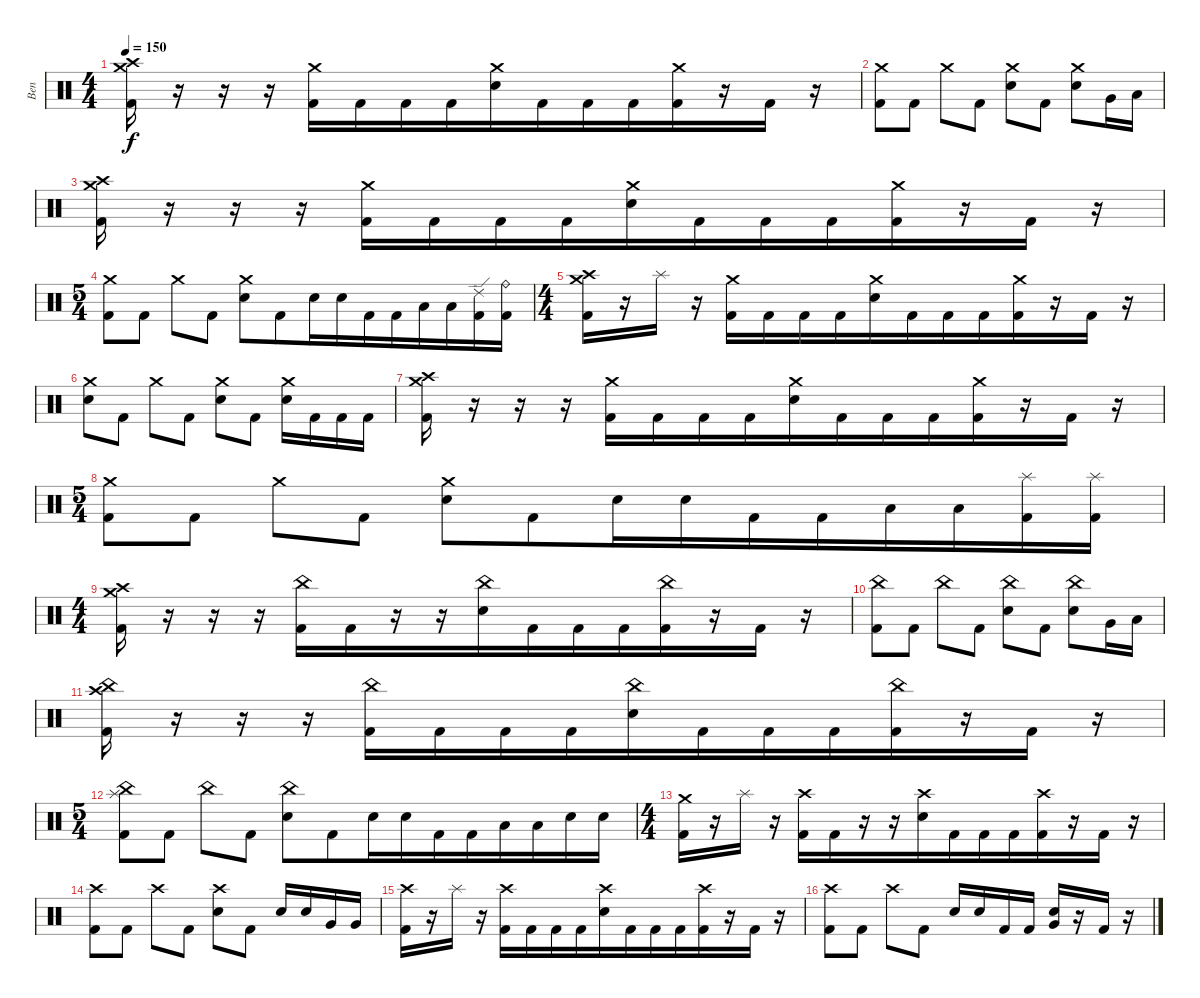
\track ("Ben" "Ben") {instrument percussion}
\staff {score}
\articulation defaults
\ts (4 4)
\tempo 150
\clef neutral
\ks c
("Kick (hit) 2" "Crash high (hit)" "Crash medium (hit)").16{dy f} r.16{beam merge} r.16 r.16 ("Kick (hit) 2" "Crash medium (hit)").16 "Kick (hit) 2".16{beam merge} "Kick (hit) 2".16 "Kick (hit) 2".16{beam merge} ("Electric Snare (hit)" "Crash medium (hit)").16{beam merge} "Kick (hit) 2".16 "Kick (hit) 2".16{beam merge} "Kick (hit) 2".16{beam merge} ("Kick (hit) 2" "Crash medium (hit)").16 r.16{beam merge} "Kick (hit) 2".16 r.16 |
("Kick (hit) 2" "Crash medium (hit)").8 "Kick (hit) 2".8 "Crash medium (hit)".8 "Kick (hit) 2".8 ("Electric Snare (hit)" "Crash medium (hit)").8 "Kick (hit) 2".8 ("Electric Snare (hit)" "Crash medium (hit)").8{beam merge} "Very Low Tom (hit)".16 "Low Floor Tom (hit)".16 |
("Kick (hit) 2" "Crash high (hit)" "Crash medium (hit)").16 r.16{beam merge} r.16 r.16 ("Kick (hit) 2" "Crash medium (hit)").16 "Kick (hit) 2".16{beam merge} "Kick (hit) 2".16 "Kick (hit) 2".16{beam merge} ("Electric Snare (hit)" "Crash medium (hit)").16{beam merge} "Kick (hit) 2".16 "Kick (hit) 2".16{beam merge} "Kick (hit) 2".16{beam merge} ("Kick (hit) 2" "Crash medium (hit)").16 r.16{beam merge} "Kick (hit) 2".16 r.16 |
\ts (5 4)
("Kick (hit) 2" "Crash medium (hit)").8 "Kick (hit) 2".8 "Crash medium (hit)".8 "Kick (hit) 2".8 ("Electric Snare (hit)" "Crash medium (hit)").8 "Kick (hit) 2".8{beam merge} "Electric Snare (hit)".16{beam merge} "Electric Snare (hit)".16 "Kick (hit) 2".16 "Kick (hit) 2".16{beam merge} "Low Floor Tom (hit)".16{beam merge} "Low Floor Tom (hit)".16{beam merge} ("Kick (hit) 2" "Ride (edge) 2").16 ("Kick (hit) 2" "Ride (bell)").16 |
\ts (4 4)
("Kick (hit) 2" "Crash high (hit)" "Crash medium (hit)").16 r.16{beam merge} "Splash (hit)".16 r.16 ("Kick (hit) 2" "Crash medium (hit)").16 "Kick (hit) 2".16{beam merge} "Kick (hit) 2".16 "Kick (hit) 2".16{beam merge} ("Electric Snare (hit)" "Crash medium (hit)").16{beam merge} "Kick (hit) 2".16 "Kick (hit) 2".16{beam merge} "Kick (hit) 2".16{beam merge} ("Kick (hit) 2" "Crash medium (hit)").16 r.16{beam merge} "Kick (hit) 2".16 r.16 |
("Electric Snare (hit)" "Crash medium (hit)").8 "Kick (hit) 2".8 "Crash medium (hit)".8 "Kick (hit) 2".8 ("Electric Snare (hit)" "Crash medium (hit)").8 "Kick (hit) 2".8 ("Electric Snare (hit)" "Crash medium (hit)").16 "Kick (hit) 2".16 "Kick (hit) 2".16{beam merge} "Kick (hit) 2".16 |
("Kick (hit) 2" "Crash high (hit)" "Crash medium (hit)").16 r.16{beam merge} r.16 r.16 ("Kick (hit) 2" "Crash medium (hit)").16 "Kick (hit) 2".16{beam merge} "Kick (hit) 2".16 "Kick (hit) 2".16{beam merge} ("Electric Snare (hit)" "Crash medium (hit)").16{beam merge} "Kick (hit) 2".16 "Kick (hit) 2".16{beam merge} "Kick (hit) 2".16{beam merge} ("Kick (hit) 2" "Crash medium (hit)").16 r.16{beam merge} "Kick (hit) 2".16 r.16 |
\ts (5 4)
("Kick (hit) 2" "Crash medium (hit)").8 "Kick (hit) 2".8 "Crash medium (hit)".8 "Kick (hit) 2".8 ("Electric Snare (hit)" "Crash medium (hit)").8 "Kick (hit) 2".8{beam merge} "Electric Snare (hit)".16{beam merge} "Electric Snare (hit)".16 "Kick (hit) 2".16 "Kick (hit) 2".16{beam merge} "Low Floor Tom (hit)".16{beam merge} "Low Floor Tom (hit)".16{beam merge} ("Kick (hit) 2" "Splash (hit)").16 ("Kick (hit) 2" "Splash (hit)").16 |
\ts (4 4)
("Kick (hit) 2" "Crash high (hit)" "Crash medium (hit)").16 r.16{beam merge} r.16 r.16 ("Kick (hit) 2" "China (hit)").16 "Kick (hit) 2".16{beam merge} r.16 r.16{beam merge} ("Electric Snare (hit)" "China (hit)").16{beam merge} "Kick (hit) 2".16 "Kick (hit) 2".16{beam merge} "Kick (hit) 2".16{beam merge} ("Kick (hit) 2" "China (hit)").16 r.16{beam merge} "Kick (hit) 2".16 r.16 |
("Kick (hit) 2" "China (hit)").8 "Kick (hit) 2".8 "China (hit)".8 "Kick (hit) 2".8 ("Electric Snare (hit)" "China (hit)").8 "Kick (hit) 2".8 ("Electric Snare (hit)" "China (hit)").8{beam merge} "Very Low Tom (hit)".16 "Low Floor Tom (hit)".16 |
("Kick (hit) 2" "Crash high (hit)" "China (hit)").16 r.16{beam merge} r.16 r.16 ("Kick (hit) 2" "China (hit)").16 "Kick (hit) 2".16{beam merge} "Kick (hit) 2".16 "Kick (hit) 2".16{beam merge} ("Electric Snare (hit)" "China (hit)").16{beam merge} "Kick (hit) 2".16 "Kick (hit) 2".16{beam merge} "Kick (hit) 2".16{beam merge} ("Kick (hit) 2" "China (hit)").16 r.16{beam merge} "Kick (hit) 2".16 r.16 |
\ts (5 4)
("Kick (hit) 2" "Splash (hit)" "China (hit)").8 "Kick (hit) 2".8 "China (hit)".8 "Kick (hit) 2".8 ("Electric Snare (hit)" "China (hit)").8 "Kick (hit) 2".8{beam merge} "Electric Snare (hit)".16{beam merge} "Electric Snare (hit)".16 "Kick (hit) 2".16 "Kick (hit) 2".16{beam merge} "Low Floor Tom (hit)".16{beam merge} "Low Floor Tom (hit)".16{beam merge} "Electric Snare (hit)".16 "Electric Snare (hit)".16 |
\ts (4 4)
("Kick (hit) 2" "Crash medium (hit)").16 r.16{beam merge} "Splash (hit)".16 r.16 ("Kick (hit) 2" "Crash high (hit)").16 "Kick (hit) 2".16{beam merge} r.16 r.16{beam merge} ("Electric Snare (hit)" "Crash high (hit)").16{beam merge} "Kick (hit) 2".16 "Kick (hit) 2".16{beam merge} "Kick (hit) 2".16{beam merge} ("Kick (hit) 2" "Crash high (hit)").16 r.16{beam merge} "Kick (hit) 2".16 r.16 |
("Kick (hit) 2" "Crash high (hit)").8 "Kick (hit) 2".8 "Crash high (hit)".8 "Kick (hit) 2".8 ("Electric Snare (hit)" "Crash high (hit)").8 "Kick (hit) 2".8 "Electric Snare (hit)".16{beam merge} "Electric Snare (hit)".16{beam merge} "Very Low Tom (hit)".16 "Very Low Tom (hit)".16 |
("Kick (hit) 2" "Crash high (hit)").16 r.16{beam merge} "Splash (hit)".16 r.16 ("Kick (hit) 2" "Crash high (hit)").16 "Kick (hit) 2".16{beam merge} "Kick (hit) 2".16 "Kick (hit) 2".16{beam merge} ("Electric Snare (hit)" "Crash high (hit)").16{beam merge} "Kick (hit) 2".16 "Kick (hit) 2".16{beam merge} "Kick (hit) 2".16{beam merge} ("Kick (hit) 2" "Crash high (hit)").16 r.16{beam merge} "Kick (hit) 2".16 r.16 |
("Kick (hit) 2" "Crash high (hit)").8 "Kick (hit) 2".8 "Crash high (hit)".8 "Kick (hit) 2".8 "Electric Snare (hit)".16{beam merge} "Electric Snare (hit)".16{beam merge} "Kick (hit) 2".16 "Kick (hit) 2".16 ("Electric Snare (hit)" "Very Low Tom (hit)").16 r.16{beam merge} "Kick (hit) 2".16 r.16
